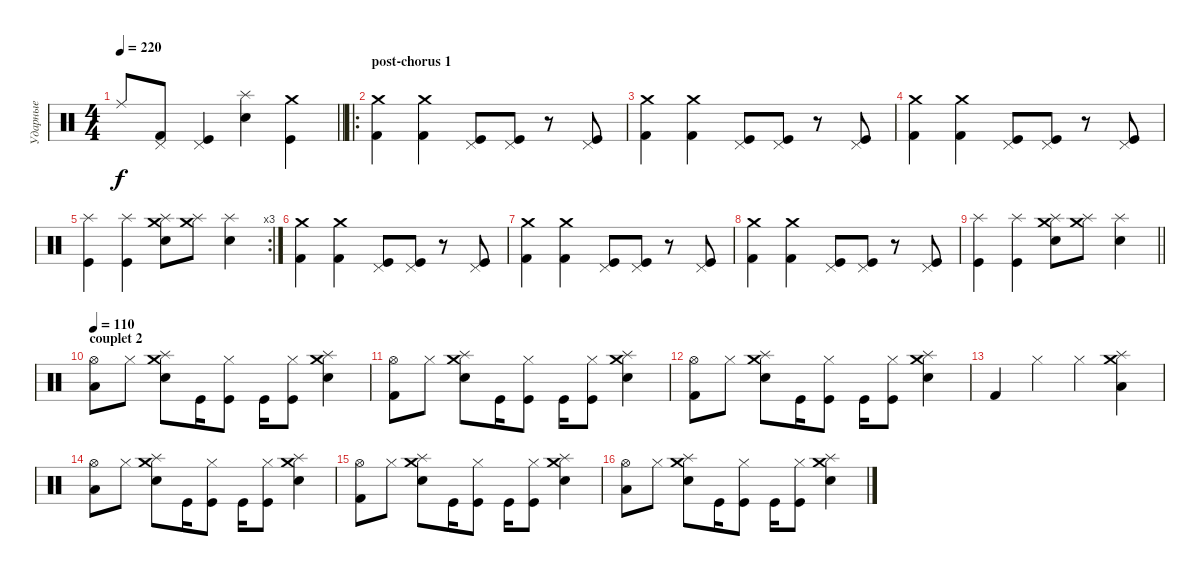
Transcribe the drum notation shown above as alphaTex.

\track ("Ударные" "Ударные") {instrument percussion}
\staff
\articulation defaults
\ts (4 4)
\tempo 220
\clef neutral
\barLineRight lightlight
\ks c "Ride (middle)".8{dy f}
("Pedal Hi-Hat (hit)" "Kick (hit) 2").8 ("Pedal Hi-Hat (hit)" "Kick (hit)").4 ("Splash (hit)" "Electric Snare (hit)").4 ("Crash medium (hit)" "Kick (hit)").4 |
\ro
\section ("" "post-chorus 1")
("Crash medium (hit)" "Kick (hit) 2").4 ("Crash medium (hit)" "Kick (hit) 2").4 ("Pedal Hi-Hat (hit)" "Kick (hit)").8 ("Pedal Hi-Hat (hit)" "Kick (hit)").8 r.8 ("Pedal Hi-Hat (hit)" "Kick (hit)").8 |
("Crash medium (hit)" "Kick (hit) 2").4 ("Crash medium (hit)" "Kick (hit) 2").4 ("Pedal Hi-Hat (hit)" "Kick (hit)").8 ("Pedal Hi-Hat (hit)" "Kick (hit)").8 r.8 ("Pedal Hi-Hat (hit)" "Kick (hit)").8 |
("Crash medium (hit)" "Kick (hit) 2").4 ("Crash medium (hit)" "Kick (hit) 2").4 ("Pedal Hi-Hat (hit)" "Kick (hit)").8 ("Pedal Hi-Hat (hit)" "Kick (hit)").8 r.8 ("Pedal Hi-Hat (hit)" "Kick (hit)").8 |
\rc 3
("Splash (hit)" "Kick (hit)").4 ("Splash (hit)" "Kick (hit)").4 ("Crash medium (hit)" "Splash (hit)" "Electric Snare (hit)").8 ("Crash medium (hit)" "Splash (hit)").8 ("Splash (hit)" "Electric Snare (hit)").4 |
("Crash medium (hit)" "Kick (hit) 2").4 ("Crash medium (hit)" "Kick (hit) 2").4 ("Pedal Hi-Hat (hit)" "Kick (hit)").8 ("Pedal Hi-Hat (hit)" "Kick (hit)").8 r.8 ("Pedal Hi-Hat (hit)" "Kick (hit)").8 |
("Crash medium (hit)" "Kick (hit) 2").4 ("Crash medium (hit)" "Kick (hit) 2").4 ("Pedal Hi-Hat (hit)" "Kick (hit)").8 ("Pedal Hi-Hat (hit)" "Kick (hit)").8 r.8 ("Pedal Hi-Hat (hit)" "Kick (hit)").8 |
("Crash medium (hit)" "Kick (hit) 2").4 ("Crash medium (hit)" "Kick (hit) 2").4 ("Pedal Hi-Hat (hit)" "Kick (hit)").8 ("Pedal Hi-Hat (hit)" "Kick (hit)").8 r.8 ("Pedal Hi-Hat (hit)" "Kick (hit)").8 |
\barLineRight lightlight
("Splash (hit)" "Kick (hit)").4 ("Splash (hit)" "Kick (hit)").4 ("Crash medium (hit)" "Splash (hit)" "Electric Snare (hit)").8 ("Crash medium (hit)" "Splash (hit)").8 ("Splash (hit)" "Electric Snare (hit)").4 |
\section ("" "couplet 2")
\tempo 110
("Hi-Hat (open)" "Low Tom (hit)").8 "Hi-Hat (closed)".8 ("Crash medium (hit)" "Splash (hit)" "Electric Snare (hit)").8 "Kick (hit)".16 ("Hi-Hat (closed)" "Kick (hit)").8 "Kick (hit)".16 ("Hi-Hat (closed)" "Kick (hit)").8 ("Crash medium (hit)" "Splash (hit)" "Electric Snare (hit)").4 |
("Hi-Hat (open)" "Kick (hit) 2").8 "Hi-Hat (closed)".8 ("Crash medium (hit)" "Splash (hit)" "Electric Snare (hit)").8 "Kick (hit)".16 ("Hi-Hat (closed)" "Kick (hit)").8 "Kick (hit)".16 ("Hi-Hat (closed)" "Kick (hit)").8 ("Crash medium (hit)" "Splash (hit)" "Electric Snare (hit)").4 |
("Hi-Hat (open)" "Kick (hit) 2").8 "Hi-Hat (closed)".8 ("Crash medium (hit)" "Splash (hit)" "Electric Snare (hit)").8 "Kick (hit)".16 ("Hi-Hat (closed)" "Kick (hit)").8 "Kick (hit)".16 ("Hi-Hat (closed)" "Kick (hit)").8 ("Crash medium (hit)" "Splash (hit)" "Electric Snare (hit)").4 |
"Kick (hit) 2".4 "Hi-Hat (closed)".4 "Hi-Hat (closed)".4 ("Crash medium (hit)" "Splash (hit)" "Low Tom (hit)").4 |
("Hi-Hat (open)" "Low Tom (hit)").8 "Hi-Hat (closed)".8 ("Crash medium (hit)" "Splash (hit)" "Electric Snare (hit)").8 "Kick (hit)".16 ("Hi-Hat (closed)" "Kick (hit)").8 "Kick (hit)".16 ("Hi-Hat (closed)" "Kick (hit)").8 ("Crash medium (hit)" "Splash (hit)" "Electric Snare (hit)").4 |
("Hi-Hat (open)" "Kick (hit) 2").8 "Hi-Hat (closed)".8 ("Crash medium (hit)" "Splash (hit)" "Electric Snare (hit)").8 "Kick (hit)".16 ("Hi-Hat (closed)" "Kick (hit)").8 "Kick (hit)".16 ("Hi-Hat (closed)" "Kick (hit)").8 ("Crash medium (hit)" "Splash (hit)" "Electric Snare (hit)").4 |
("Hi-Hat (open)" "Low Tom (hit)").8 "Hi-Hat (closed)".8 ("Crash medium (hit)" "Splash (hit)" "Electric Snare (hit)").8 "Kick (hit)".16 ("Hi-Hat (closed)" "Kick (hit)").8 "Kick (hit)".16 ("Hi-Hat (closed)" "Kick (hit)").8 ("Crash medium (hit)" "Splash (hit)" "Electric Snare (hit)").4
